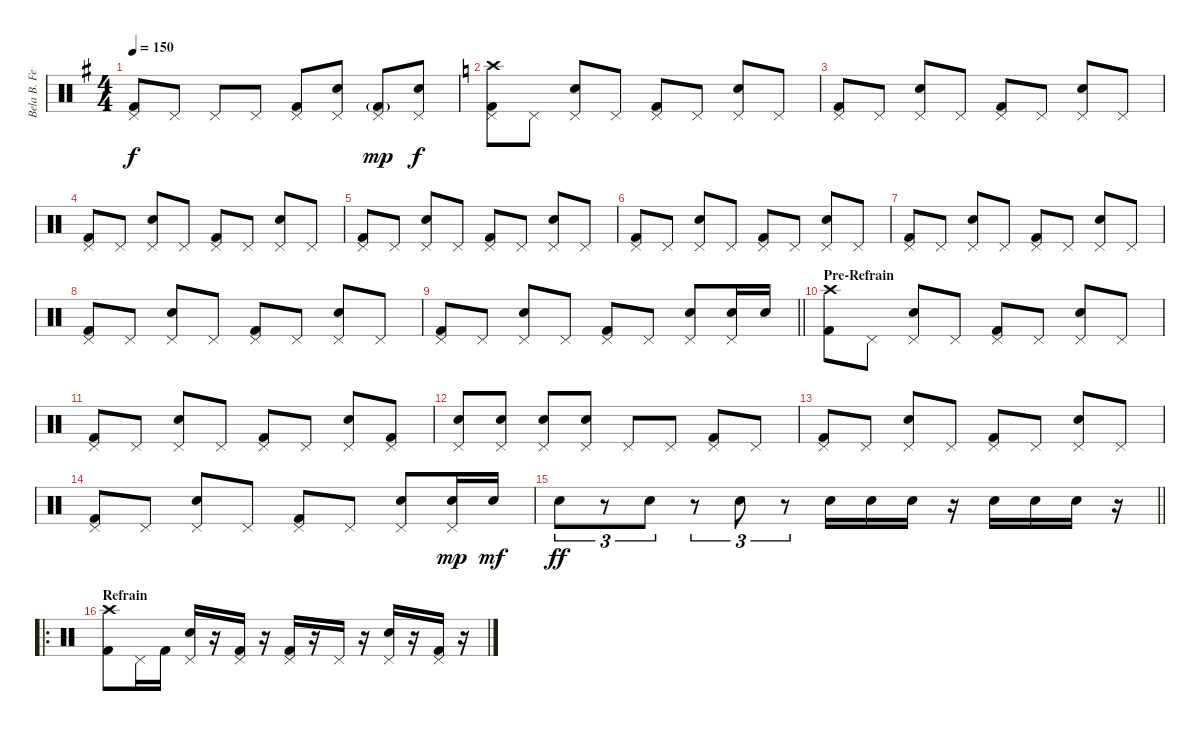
\track ("Bela B. Felsenheimer" "Bela B. Fe") {instrument percussion}
\staff {score}
\articulation defaults
\ts (4 4)
\tempo 150
\clef neutral
\ks g
("Pedal Hi-Hat (hit)" "Kick (hit) 2").8{dy f} "Pedal Hi-Hat (hit)".8 "Pedal Hi-Hat (hit)".8 "Pedal Hi-Hat (hit)".8 ("Pedal Hi-Hat (hit)" "Kick (hit) 2").8 ("Pedal Hi-Hat (hit)" "Snare (hit) 2").8 ("Kick (hit) 2"{g} "Pedal Hi-Hat (hit)").8{dy mp} ("Pedal Hi-Hat (hit)" "Snare (hit) 2").8{dy f} |
\ks c
("Pedal Hi-Hat (hit)" "Crash high (hit)" "Kick (hit) 2").8 "Pedal Hi-Hat (hit)".8 ("Pedal Hi-Hat (hit)" "Snare (hit) 2").8 "Pedal Hi-Hat (hit)".8 ("Pedal Hi-Hat (hit)" "Kick (hit) 2").8 "Pedal Hi-Hat (hit)".8 ("Pedal Hi-Hat (hit)" "Snare (hit) 2").8 "Pedal Hi-Hat (hit)".8 |
("Pedal Hi-Hat (hit)" "Kick (hit) 2").8 "Pedal Hi-Hat (hit)".8 ("Pedal Hi-Hat (hit)" "Snare (hit) 2").8 "Pedal Hi-Hat (hit)".8 ("Pedal Hi-Hat (hit)" "Kick (hit) 2").8 "Pedal Hi-Hat (hit)".8 ("Pedal Hi-Hat (hit)" "Snare (hit) 2").8 "Pedal Hi-Hat (hit)".8 |
("Pedal Hi-Hat (hit)" "Kick (hit) 2").8 "Pedal Hi-Hat (hit)".8 ("Pedal Hi-Hat (hit)" "Snare (hit) 2").8 "Pedal Hi-Hat (hit)".8 ("Pedal Hi-Hat (hit)" "Kick (hit) 2").8 "Pedal Hi-Hat (hit)".8 ("Pedal Hi-Hat (hit)" "Snare (hit) 2").8 "Pedal Hi-Hat (hit)".8 |
("Pedal Hi-Hat (hit)" "Kick (hit) 2").8 "Pedal Hi-Hat (hit)".8 ("Pedal Hi-Hat (hit)" "Snare (hit) 2").8 "Pedal Hi-Hat (hit)".8 ("Pedal Hi-Hat (hit)" "Kick (hit) 2").8 "Pedal Hi-Hat (hit)".8 ("Pedal Hi-Hat (hit)" "Snare (hit) 2").8 "Pedal Hi-Hat (hit)".8 |
("Pedal Hi-Hat (hit)" "Kick (hit) 2").8 "Pedal Hi-Hat (hit)".8 ("Pedal Hi-Hat (hit)" "Snare (hit) 2").8 "Pedal Hi-Hat (hit)".8 ("Pedal Hi-Hat (hit)" "Kick (hit) 2").8 "Pedal Hi-Hat (hit)".8 ("Pedal Hi-Hat (hit)" "Snare (hit) 2").8 "Pedal Hi-Hat (hit)".8 |
("Pedal Hi-Hat (hit)" "Kick (hit) 2").8 "Pedal Hi-Hat (hit)".8 ("Pedal Hi-Hat (hit)" "Snare (hit) 2").8 "Pedal Hi-Hat (hit)".8 ("Pedal Hi-Hat (hit)" "Kick (hit) 2").8 "Pedal Hi-Hat (hit)".8 ("Pedal Hi-Hat (hit)" "Snare (hit) 2").8 "Pedal Hi-Hat (hit)".8 |
("Pedal Hi-Hat (hit)" "Kick (hit) 2").8 "Pedal Hi-Hat (hit)".8 ("Pedal Hi-Hat (hit)" "Snare (hit) 2").8 "Pedal Hi-Hat (hit)".8 ("Pedal Hi-Hat (hit)" "Kick (hit) 2").8 "Pedal Hi-Hat (hit)".8 ("Pedal Hi-Hat (hit)" "Snare (hit) 2").8 "Pedal Hi-Hat (hit)".8 |
\barLineRight lightlight
("Pedal Hi-Hat (hit)" "Kick (hit) 2").8 "Pedal Hi-Hat (hit)".8 ("Pedal Hi-Hat (hit)" "Snare (hit) 2").8 "Pedal Hi-Hat (hit)".8 ("Pedal Hi-Hat (hit)" "Kick (hit) 2").8 "Pedal Hi-Hat (hit)".8 ("Pedal Hi-Hat (hit)" "Snare (hit) 2").8 ("Pedal Hi-Hat (hit)" "Snare (hit) 2").16 "Snare (hit) 2".16 |
\section ("" "Pre-Refrain")
("Crash high (hit)" "Kick (hit) 2").8 "Pedal Hi-Hat (hit)".8 ("Pedal Hi-Hat (hit)" "Snare (hit) 2").8 "Pedal Hi-Hat (hit)".8 ("Pedal Hi-Hat (hit)" "Kick (hit) 2").8 "Pedal Hi-Hat (hit)".8 ("Pedal Hi-Hat (hit)" "Snare (hit) 2").8 "Pedal Hi-Hat (hit)".8 |
("Pedal Hi-Hat (hit)" "Kick (hit) 2").8 "Pedal Hi-Hat (hit)".8 ("Pedal Hi-Hat (hit)" "Snare (hit) 2").8 "Pedal Hi-Hat (hit)".8 ("Pedal Hi-Hat (hit)" "Kick (hit) 2").8 "Pedal Hi-Hat (hit)".8 ("Pedal Hi-Hat (hit)" "Snare (hit) 2").8 ("Pedal Hi-Hat (hit)" "Kick (hit) 2").8 |
("Pedal Hi-Hat (hit)" "Snare (hit) 2").8 ("Pedal Hi-Hat (hit)" "Snare (hit) 2").8 ("Pedal Hi-Hat (hit)" "Snare (hit) 2").8 ("Pedal Hi-Hat (hit)" "Snare (hit) 2").8 "Pedal Hi-Hat (hit)".8 "Pedal Hi-Hat (hit)".8 ("Pedal Hi-Hat (hit)" "Kick (hit) 2").8 "Pedal Hi-Hat (hit)".8 |
("Pedal Hi-Hat (hit)" "Kick (hit) 2").8 "Pedal Hi-Hat (hit)".8 ("Pedal Hi-Hat (hit)" "Snare (hit) 2").8 "Pedal Hi-Hat (hit)".8 ("Pedal Hi-Hat (hit)" "Kick (hit) 2").8 "Pedal Hi-Hat (hit)".8 ("Pedal Hi-Hat (hit)" "Snare (hit) 2").8 "Pedal Hi-Hat (hit)".8 |
("Pedal Hi-Hat (hit)" "Kick (hit) 2").8 "Pedal Hi-Hat (hit)".8 ("Pedal Hi-Hat (hit)" "Snare (hit) 2").8 "Pedal Hi-Hat (hit)".8 ("Pedal Hi-Hat (hit)" "Kick (hit) 2").8 "Pedal Hi-Hat (hit)".8 ("Pedal Hi-Hat (hit)" "Snare (hit) 2").8 ("Pedal Hi-Hat (hit)" "Snare (hit) 2").16{dy mp} "Snare (hit) 2".16{dy mf} |
\barLineRight lightlight "Snare (hit) 2".8{tu (3 2) dy ff}
r.8{tu (3 2)} "Snare (hit) 2".8{tu (3 2)} r.8{tu (3 2)} "Snare (hit) 2".8{tu (3 2)} r.8{tu (3 2)} "Snare (hit) 2".16 "Snare (hit) 2".16 "Snare (hit) 2".16 r.16 "Snare (hit) 2".16 "Snare (hit) 2".16 "Snare (hit) 2".16 r.16 |
\ro
\section ("" "Refrain")
("Crash high (hit)" "Kick (hit) 2").8 "Pedal Hi-Hat (hit)".16 "Kick (hit) 2".16 ("Pedal Hi-Hat (hit)" "Snare (hit) 2").16 r.16 ("Pedal Hi-Hat (hit)" "Kick (hit) 2").16 r.16 ("Pedal Hi-Hat (hit)" "Kick (hit) 2").16 r.16 "Pedal Hi-Hat (hit)".16 r.16 ("Pedal Hi-Hat (hit)" "Snare (hit) 2").16 r.16 ("Pedal Hi-Hat (hit)" "Kick (hit) 2").16 r.16
